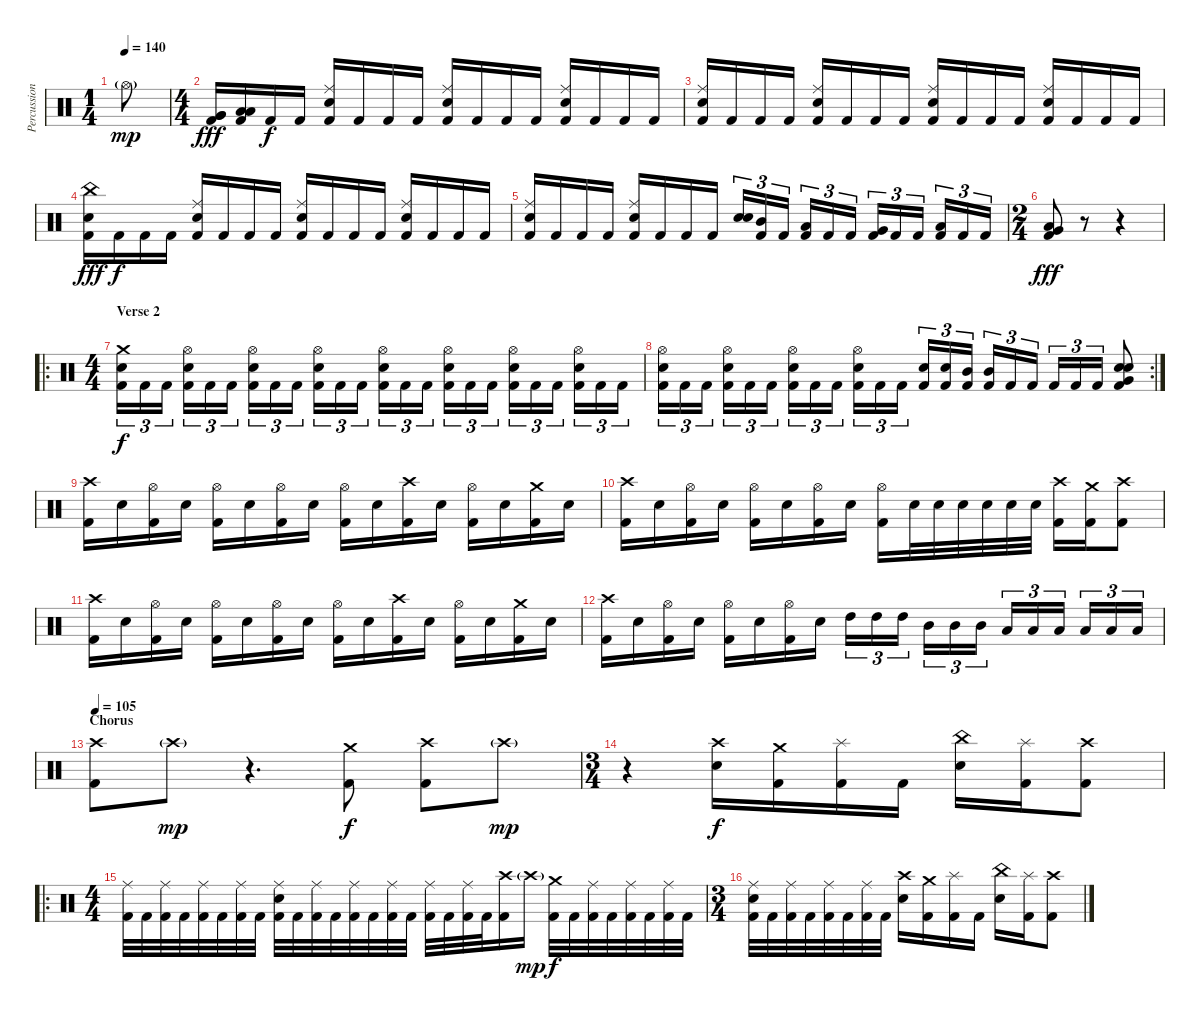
\track ("Percussioni" "Percussion") {instrument percussion}
\staff {score}
\articulation defaults
\ts (1 4)
\tempo 140
\clef neutral
\ks c "Hi-Hat (open)"{g}.8{dy mp volume 0}
|
\ts (4 4)
("Very Low Tom (hit)" "Very Low Tom (hit)" "Kick (hit) 2").16{dy fff volume 14} ("Low Floor Tom (hit)" "Low Floor Tom (hit)" "Kick (hit) 2").16 "Kick (hit) 2".16{dy f} "Kick (hit) 2".16 ("Ride (middle)" "Electric Snare (hit)" "Kick (hit) 2").16 "Kick (hit) 2".16 "Kick (hit) 2".16 "Kick (hit) 2".16 ("Ride (middle)" "Electric Snare (hit)" "Kick (hit) 2").16 "Kick (hit) 2".16 "Kick (hit) 2".16 "Kick (hit) 2".16 ("Ride (middle)" "Electric Snare (hit)" "Kick (hit) 2").16 "Kick (hit) 2".16 "Kick (hit) 2".16 "Kick (hit) 2".16 |
("Ride (middle)" "Electric Snare (hit)" "Kick (hit) 2").16 "Kick (hit) 2".16 "Kick (hit) 2".16 "Kick (hit) 2".16 ("Ride (middle)" "Electric Snare (hit)" "Kick (hit) 2").16 "Kick (hit) 2".16 "Kick (hit) 2".16 "Kick (hit) 2".16 ("Ride (middle)" "Electric Snare (hit)" "Kick (hit) 2").16 "Kick (hit) 2".16 "Kick (hit) 2".16 "Kick (hit) 2".16 ("Ride (middle)" "Electric Snare (hit)" "Kick (hit) 2").16 "Kick (hit) 2".16 "Kick (hit) 2".16 "Kick (hit) 2".16 |
("China (hit)" "Electric Snare (hit)" "Kick (hit) 2").16{dy fff} "Kick (hit) 2".16{dy f} "Kick (hit) 2".16 "Kick (hit) 2".16 ("Ride (middle)" "Electric Snare (hit)" "Kick (hit) 2").16 "Kick (hit) 2".16 "Kick (hit) 2".16 "Kick (hit) 2".16 ("Ride (middle)" "Electric Snare (hit)" "Kick (hit) 2").16 "Kick (hit) 2".16 "Kick (hit) 2".16 "Kick (hit) 2".16 ("Ride (middle)" "Electric Snare (hit)" "Kick (hit) 2").16 "Kick (hit) 2".16 "Kick (hit) 2".16 "Kick (hit) 2".16 |
("Ride (middle)" "Electric Snare (hit)" "Kick (hit) 2").16 "Kick (hit) 2".16 "Kick (hit) 2".16 "Kick (hit) 2".16 ("Ride (middle)" "Electric Snare (hit)" "Kick (hit) 2").16 "Kick (hit) 2".16 "Kick (hit) 2".16 "Kick (hit) 2".16 ("Electric Snare (hit)" "Electric Snare (hit)").16{tu (3 2)} ("Mid Tom (hit)" "Kick (hit) 2").16{tu (3 2)} "Kick (hit) 2".16{tu (3 2)} ("Low Tom (hit)" "Kick (hit) 2").16{tu (3 2)} "Kick (hit) 2".16{tu (3 2)} "Kick (hit) 2".16{tu (3 2)} ("Very Low Tom (hit)" "Kick (hit) 2").16{tu (3 2)} "Kick (hit) 2".16{tu (3 2)} "Kick (hit) 2".16{tu (3 2)} ("Low Floor Tom (hit)" "Kick (hit) 2").16{tu (3 2)} "Kick (hit) 2".16{tu (3 2)} "Kick (hit) 2".16{tu (3 2)} |
\ts (2 4)
("Very Low Tom (hit)" "Low Floor Tom (hit)" "Kick (hit) 2").8{dy fff} r.8 r.4 |
\ro
\ts (4 4)
\section ("" "Verse 2")
("Crash medium (hit)" "Electric Snare (hit)" "Kick (hit) 2").16{tu (3 2) dy f} "Kick (hit) 2".16{tu (3 2)} "Kick (hit) 2".16{tu (3 2)} ("Hi-Hat (open)" "Electric Snare (hit)" "Kick (hit) 2").16{tu (3 2)} "Kick (hit) 2".16{tu (3 2)} "Kick (hit) 2".16{tu (3 2)} ("Hi-Hat (open)" "Electric Snare (hit)" "Kick (hit) 2").16{tu (3 2)} "Kick (hit) 2".16{tu (3 2)} "Kick (hit) 2".16{tu (3 2)} ("Hi-Hat (open)" "Electric Snare (hit)" "Kick (hit) 2").16{tu (3 2)} "Kick (hit) 2".16{tu (3 2)} "Kick (hit) 2".16{tu (3 2)} ("Hi-Hat (open)" "Electric Snare (hit)" "Kick (hit) 2").16{tu (3 2)} "Kick (hit) 2".16{tu (3 2)} "Kick (hit) 2".16{tu (3 2)} ("Hi-Hat (open)" "Electric Snare (hit)" "Kick (hit) 2").16{tu (3 2)} "Kick (hit) 2".16{tu (3 2)} "Kick (hit) 2".16{tu (3 2)} ("Hi-Hat (open)" "Electric Snare (hit)" "Kick (hit) 2").16{tu (3 2)} "Kick (hit) 2".16{tu (3 2)} "Kick (hit) 2".16{tu (3 2)} ("Hi-Hat (open)" "Electric Snare (hit)" "Kick (hit) 2").16{tu (3 2)} "Kick (hit) 2".16{tu (3 2)} "Kick (hit) 2".16{tu (3 2)} |
\rc 2
("Hi-Hat (open)" "Electric Snare (hit)" "Kick (hit) 2").16{tu (3 2)} "Kick (hit) 2".16{tu (3 2)} "Kick (hit) 2".16{tu (3 2)} ("Hi-Hat (open)" "Electric Snare (hit)" "Kick (hit) 2").16{tu (3 2)} "Kick (hit) 2".16{tu (3 2)} "Kick (hit) 2".16{tu (3 2)} ("Hi-Hat (open)" "Electric Snare (hit)" "Kick (hit) 2").16{tu (3 2)} "Kick (hit) 2".16{tu (3 2)} "Kick (hit) 2".16{tu (3 2)} ("Hi-Hat (open)" "Electric Snare (hit)" "Kick (hit) 2").16{tu (3 2)} "Kick (hit) 2".16{tu (3 2)} "Kick (hit) 2".16{tu (3 2)} ("Electric Snare (hit)" "Kick (hit) 2").16{tu (3 2)} ("Electric Snare (hit)" "Kick (hit) 2").16{tu (3 2)} ("Mid Tom (hit)" "Kick (hit) 2").16{tu (3 2)} ("Mid Tom (hit)" "Kick (hit) 2").16{tu (3 2)} "Kick (hit) 2".16{tu (3 2)} "Kick (hit) 2".16{tu (3 2)} "Kick (hit) 2".16{tu (3 2)} "Kick (hit) 2".16{tu (3 2)} "Kick (hit) 2".16{tu (3 2)} ("Electric Snare (hit)" "Electric Snare (hit)" "Very Low Tom (hit)" "Kick (hit) 2").8 |
("Crash high (hit)" "Kick (hit) 2").16 "Electric Snare (hit)".16 ("Hi-Hat (open)" "Kick (hit) 2").16 "Electric Snare (hit)".16 ("Hi-Hat (open)" "Kick (hit) 2").16 "Electric Snare (hit)".16 ("Hi-Hat (open)" "Kick (hit) 2").16 "Electric Snare (hit)".16 ("Hi-Hat (open)" "Kick (hit) 2").16 "Electric Snare (hit)".16 ("Crash high (hit)" "Kick (hit) 2").16 "Electric Snare (hit)".16 ("Hi-Hat (open)" "Kick (hit) 2").16 "Electric Snare (hit)".16 ("Crash medium (hit)" "Kick (hit) 2").16 "Electric Snare (hit)".16 |
("Crash high (hit)" "Kick (hit) 2").16 "Electric Snare (hit)".16 ("Hi-Hat (open)" "Kick (hit) 2").16 "Electric Snare (hit)".16 ("Hi-Hat (open)" "Kick (hit) 2").16 "Electric Snare (hit)".16 ("Hi-Hat (open)" "Kick (hit) 2").16 "Electric Snare (hit)".16 ("Hi-Hat (open)" "Kick (hit) 2").16 "Electric Snare (hit)".32 "Electric Snare (hit)".32 "Electric Snare (hit)".32 "Electric Snare (hit)".32 "Electric Snare (hit)".32 "Electric Snare (hit)".32 ("Crash high (hit)" "Kick (hit) 2").16 ("Crash medium (hit)" "Kick (hit) 2").16 ("Crash high (hit)" "Kick (hit) 2").8 |
("Crash high (hit)" "Kick (hit) 2").16 "Electric Snare (hit)".16 ("Hi-Hat (open)" "Kick (hit) 2").16 "Electric Snare (hit)".16 ("Hi-Hat (open)" "Kick (hit) 2").16 "Electric Snare (hit)".16 ("Hi-Hat (open)" "Kick (hit) 2").16 "Electric Snare (hit)".16 ("Hi-Hat (open)" "Kick (hit) 2").16 "Electric Snare (hit)".16 ("Crash high (hit)" "Kick (hit) 2").16 "Electric Snare (hit)".16 ("Hi-Hat (open)" "Kick (hit) 2").16 "Electric Snare (hit)".16 ("Crash medium (hit)" "Kick (hit) 2").16 "Electric Snare (hit)".16 |
("Crash high (hit)" "Kick (hit) 2").16 "Electric Snare (hit)".16 ("Hi-Hat (open)" "Kick (hit) 2").16 "Electric Snare (hit)".16 ("Hi-Hat (open)" "Kick (hit) 2").16 "Electric Snare (hit)".16 ("Hi-Hat (open)" "Kick (hit) 2").16 "Electric Snare (hit)".16 "High Tom (hit)".16{tu (3 2)} "High Tom (hit)".16{tu (3 2)} "High Tom (hit)".16{tu (3 2)} "Mid Tom (hit)".16{tu (3 2)} "Mid Tom (hit)".16{tu (3 2)} "Mid Tom (hit)".16{tu (3 2)} "Low Tom (hit)".16{tu (3 2)} "Low Tom (hit)".16{tu (3 2)} "Low Tom (hit)".16{tu (3 2)} "Low Floor Tom (hit)".16{tu (3 2)} "Low Floor Tom (hit)".16{tu (3 2)} "Low Floor Tom (hit)".16{tu (3 2)} |
\section ("" "Chorus")
\tempo 105
("Crash high (hit)" "Kick (hit) 2").8 "Crash high (hit)"{g}.8{dy mp volume 0} r.4{d} ("Crash medium (hit)" "Kick (hit) 2").8{dy f volume 14} ("Crash high (hit)" "Kick (hit) 2").8 "Crash high (hit)"{g}.8{dy mp volume 0} |
\ts (3 4)
r.4 ("Crash high (hit)" "Electric Snare (hit)").16{dy f volume 14} ("Crash medium (hit)" "Kick (hit) 2").16 ("Splash (hit)" "Kick (hit) 2").16 "Kick (hit) 2".16 ("China (hit)" "Electric Snare (hit)").16 ("Splash (hit)" "Kick (hit) 2").16 ("Crash high (hit)" "Kick (hit) 2").8 |
\ro
\ts (4 4)
("Ride (middle)" "Kick (hit) 2").32 "Kick (hit) 2".32 ("Ride (middle)" "Kick (hit) 2").32 "Kick (hit) 2".32 ("Ride (middle)" "Kick (hit) 2").32 "Kick (hit) 2".32 ("Ride (middle)" "Kick (hit) 2").32 "Kick (hit) 2".32 ("Ride (middle)" "Electric Snare (hit)" "Kick (hit) 2").32 "Kick (hit) 2".32 ("Ride (middle)" "Kick (hit) 2").32 "Kick (hit) 2".32 ("Ride (middle)" "Kick (hit) 2").32 "Kick (hit) 2".32 ("Ride (middle)" "Kick (hit) 2").32 "Kick (hit) 2".32 ("Ride (middle)" "Kick (hit) 2").32 "Kick (hit) 2".32 ("Ride (middle)" "Kick (hit) 2").32 "Kick (hit) 2".32 ("Crash high (hit)" "Kick (hit) 2").16 "Crash high (hit)"{g}.16{dy mp volume 0} ("Crash medium (hit)" "Kick (hit) 2").32{dy f volume 14} "Kick (hit) 2".32 ("Ride (middle)" "Kick (hit) 2").32 "Kick (hit) 2".32 ("Ride (middle)" "Kick (hit) 2").32 "Kick (hit) 2".32 ("Ride (middle)" "Kick (hit) 2").32 "Kick (hit) 2".32 |
\ts (3 4)
("Ride (middle)" "Electric Snare (hit)" "Kick (hit) 2").32 "Kick (hit) 2".32 ("Ride (middle)" "Kick (hit) 2").32 "Kick (hit) 2".32 ("Ride (middle)" "Kick (hit) 2").32 "Kick (hit) 2".32 ("Ride (middle)" "Kick (hit) 2").32 "Kick (hit) 2".32 ("Crash high (hit)" "Electric Snare (hit)").16 ("Crash medium (hit)" "Kick (hit) 2").16 ("Splash (hit)" "Kick (hit) 2").16 "Kick (hit) 2".16 ("China (hit)" "Electric Snare (hit)").16 ("Splash (hit)" "Kick (hit) 2").16 ("Crash high (hit)" "Kick (hit) 2").8
